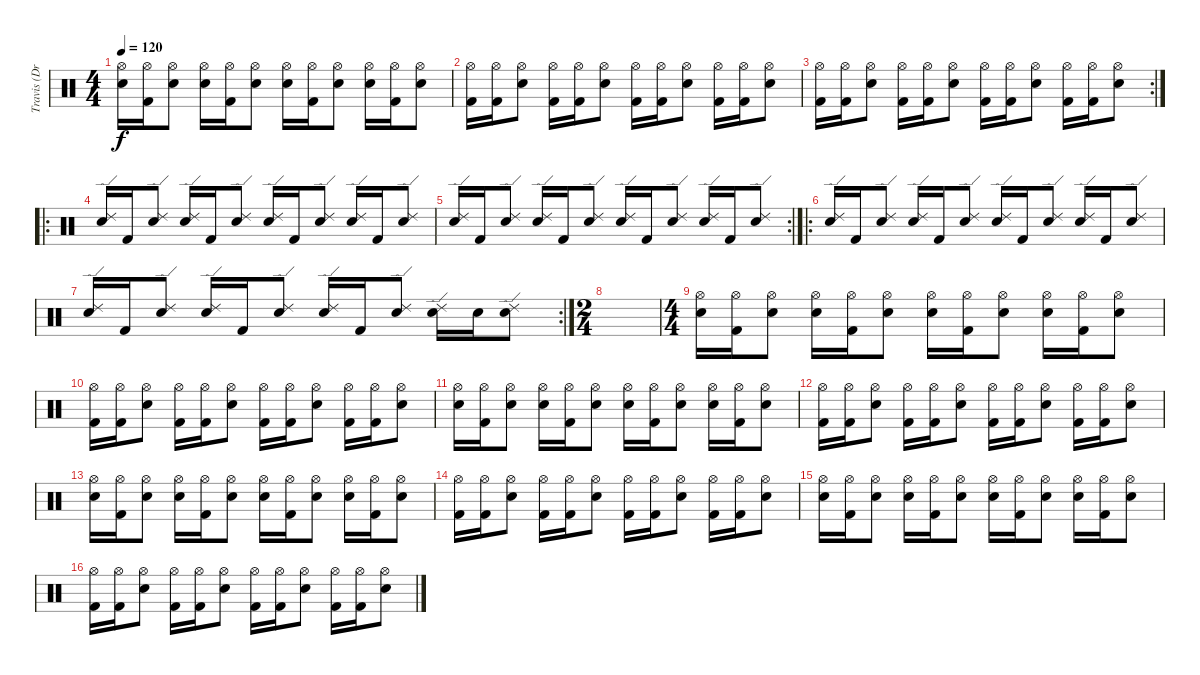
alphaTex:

\track ("Travis (Drum)" "Travis (Dr") {instrument percussion}
\staff {score}
\articulation defaults
\ts (4 4)
\tempo 120
\clef neutral
\ks c
("Hi-Hat (open)" "Electric Snare (hit)").16{dy f} ("Hi-Hat (open)" "Kick (hit) 2").16 ("Hi-Hat (open)" "Electric Snare (hit)").8 ("Hi-Hat (open)" "Electric Snare (hit)").16 ("Hi-Hat (open)" "Kick (hit) 2").16 ("Hi-Hat (open)" "Electric Snare (hit)").8 ("Hi-Hat (open)" "Electric Snare (hit)").16 ("Hi-Hat (open)" "Kick (hit) 2").16 ("Hi-Hat (open)" "Electric Snare (hit)").8 ("Hi-Hat (open)" "Electric Snare (hit)").16 ("Hi-Hat (open)" "Kick (hit) 2").16 ("Hi-Hat (open)" "Electric Snare (hit)").8 |
("Hi-Hat (open)" "Kick (hit) 2").16 ("Hi-Hat (open)" "Kick (hit) 2").16 ("Hi-Hat (open)" "Electric Snare (hit)").8 ("Hi-Hat (open)" "Kick (hit) 2").16 ("Hi-Hat (open)" "Kick (hit) 2").16 ("Hi-Hat (open)" "Electric Snare (hit)").8 ("Hi-Hat (open)" "Kick (hit) 2").16 ("Hi-Hat (open)" "Kick (hit) 2").16 ("Hi-Hat (open)" "Electric Snare (hit)").8 ("Hi-Hat (open)" "Kick (hit) 2").16 ("Hi-Hat (open)" "Kick (hit) 2").16 ("Hi-Hat (open)" "Electric Snare (hit)").8 |
\rc 2
("Hi-Hat (open)" "Kick (hit) 2").16 ("Hi-Hat (open)" "Kick (hit) 2").16 ("Hi-Hat (open)" "Electric Snare (hit)").8 ("Hi-Hat (open)" "Kick (hit) 2").16 ("Hi-Hat (open)" "Kick (hit) 2").16 ("Hi-Hat (open)" "Electric Snare (hit)").8 ("Hi-Hat (open)" "Kick (hit) 2").16 ("Hi-Hat (open)" "Kick (hit) 2").16 ("Hi-Hat (open)" "Electric Snare (hit)").8 ("Hi-Hat (open)" "Kick (hit) 2").16 ("Hi-Hat (open)" "Kick (hit) 2").16 ("Hi-Hat (open)" "Electric Snare (hit)").8 |
\ro
("Ride (edge) 2" "Electric Snare (hit)").16 "Kick (hit) 2".16 ("Ride (edge) 2" "Electric Snare (hit)").8 ("Ride (edge) 2" "Electric Snare (hit)").16 "Kick (hit) 2".16 ("Ride (edge) 2" "Electric Snare (hit)").8 ("Ride (edge) 2" "Electric Snare (hit)").16 "Kick (hit) 2".16 ("Ride (edge) 2" "Electric Snare (hit)").8 ("Ride (edge) 2" "Electric Snare (hit)").16 "Kick (hit) 2".16 ("Ride (edge) 2" "Electric Snare (hit)").8 |
\rc 2
("Ride (edge) 2" "Electric Snare (hit)").16 "Kick (hit) 2".16 ("Ride (edge) 2" "Electric Snare (hit)").8 ("Ride (edge) 2" "Electric Snare (hit)").16 "Kick (hit) 2".16 ("Ride (edge) 2" "Electric Snare (hit)").8 ("Ride (edge) 2" "Electric Snare (hit)").16 "Kick (hit) 2".16 ("Ride (edge) 2" "Electric Snare (hit)").8 ("Ride (edge) 2" "Electric Snare (hit)").16 "Kick (hit) 2".16 ("Ride (edge) 2" "Electric Snare (hit)").8 |
\ro
("Ride (edge) 2" "Electric Snare (hit)").16 "Kick (hit) 2".16 ("Ride (edge) 2" "Electric Snare (hit)").8 ("Ride (edge) 2" "Electric Snare (hit)").16 "Kick (hit) 2".16 ("Ride (edge) 2" "Electric Snare (hit)").8 ("Ride (edge) 2" "Electric Snare (hit)").16 "Kick (hit) 2".16 ("Ride (edge) 2" "Electric Snare (hit)").8 ("Ride (edge) 2" "Electric Snare (hit)").16 "Kick (hit) 2".16 ("Ride (edge) 2" "Electric Snare (hit)").8 |
\rc 2
("Ride (edge) 2" "Electric Snare (hit)").16 "Kick (hit) 2".16 ("Ride (edge) 2" "Electric Snare (hit)").8 ("Ride (edge) 2" "Electric Snare (hit)").16 "Kick (hit) 2".16 ("Ride (edge) 2" "Electric Snare (hit)").8 ("Ride (edge) 2" "Electric Snare (hit)").16 "Kick (hit) 2".16 ("Ride (edge) 2" "Electric Snare (hit)").8 ("Ride (edge) 2" "Electric Snare (hit)").16 "Electric Snare (hit)".16 ("Ride (edge) 2" "Electric Snare (hit)").8 |
\ts (2 4)
|
\ts (4 4)
("Hi-Hat (open)" "Electric Snare (hit)").16 ("Hi-Hat (open)" "Kick (hit) 2").16 ("Hi-Hat (open)" "Electric Snare (hit)").8 ("Hi-Hat (open)" "Electric Snare (hit)").16 ("Hi-Hat (open)" "Kick (hit) 2").16 ("Hi-Hat (open)" "Electric Snare (hit)").8 ("Hi-Hat (open)" "Electric Snare (hit)").16 ("Hi-Hat (open)" "Kick (hit) 2").16 ("Hi-Hat (open)" "Electric Snare (hit)").8 ("Hi-Hat (open)" "Electric Snare (hit)").16 ("Hi-Hat (open)" "Kick (hit) 2").16 ("Hi-Hat (open)" "Electric Snare (hit)").8 |
("Hi-Hat (open)" "Kick (hit) 2").16 ("Hi-Hat (open)" "Kick (hit) 2").16 ("Hi-Hat (open)" "Electric Snare (hit)").8 ("Hi-Hat (open)" "Kick (hit) 2").16 ("Hi-Hat (open)" "Kick (hit) 2").16 ("Hi-Hat (open)" "Electric Snare (hit)").8 ("Hi-Hat (open)" "Kick (hit) 2").16 ("Hi-Hat (open)" "Kick (hit) 2").16 ("Hi-Hat (open)" "Electric Snare (hit)").8 ("Hi-Hat (open)" "Kick (hit) 2").16 ("Hi-Hat (open)" "Kick (hit) 2").16 ("Hi-Hat (open)" "Electric Snare (hit)").8 |
("Hi-Hat (open)" "Electric Snare (hit)").16 ("Hi-Hat (open)" "Kick (hit) 2").16 ("Hi-Hat (open)" "Electric Snare (hit)").8 ("Hi-Hat (open)" "Electric Snare (hit)").16 ("Hi-Hat (open)" "Kick (hit) 2").16 ("Hi-Hat (open)" "Electric Snare (hit)").8 ("Hi-Hat (open)" "Electric Snare (hit)").16 ("Hi-Hat (open)" "Kick (hit) 2").16 ("Hi-Hat (open)" "Electric Snare (hit)").8 ("Hi-Hat (open)" "Electric Snare (hit)").16 ("Hi-Hat (open)" "Kick (hit) 2").16 ("Hi-Hat (open)" "Electric Snare (hit)").8 |
("Hi-Hat (open)" "Kick (hit) 2").16 ("Hi-Hat (open)" "Kick (hit) 2").16 ("Hi-Hat (open)" "Electric Snare (hit)").8 ("Hi-Hat (open)" "Kick (hit) 2").16 ("Hi-Hat (open)" "Kick (hit) 2").16 ("Hi-Hat (open)" "Electric Snare (hit)").8 ("Hi-Hat (open)" "Kick (hit) 2").16 ("Hi-Hat (open)" "Kick (hit) 2").16 ("Hi-Hat (open)" "Electric Snare (hit)").8 ("Hi-Hat (open)" "Kick (hit) 2").16 ("Hi-Hat (open)" "Kick (hit) 2").16 ("Hi-Hat (open)" "Electric Snare (hit)").8 |
("Hi-Hat (open)" "Electric Snare (hit)").16 ("Hi-Hat (open)" "Kick (hit) 2").16 ("Hi-Hat (open)" "Electric Snare (hit)").8 ("Hi-Hat (open)" "Electric Snare (hit)").16 ("Hi-Hat (open)" "Kick (hit) 2").16 ("Hi-Hat (open)" "Electric Snare (hit)").8 ("Hi-Hat (open)" "Electric Snare (hit)").16 ("Hi-Hat (open)" "Kick (hit) 2").16 ("Hi-Hat (open)" "Electric Snare (hit)").8 ("Hi-Hat (open)" "Electric Snare (hit)").16 ("Hi-Hat (open)" "Kick (hit) 2").16 ("Hi-Hat (open)" "Electric Snare (hit)").8 |
("Hi-Hat (open)" "Kick (hit) 2").16 ("Hi-Hat (open)" "Kick (hit) 2").16 ("Hi-Hat (open)" "Electric Snare (hit)").8 ("Hi-Hat (open)" "Kick (hit) 2").16 ("Hi-Hat (open)" "Kick (hit) 2").16 ("Hi-Hat (open)" "Electric Snare (hit)").8 ("Hi-Hat (open)" "Kick (hit) 2").16 ("Hi-Hat (open)" "Kick (hit) 2").16 ("Hi-Hat (open)" "Electric Snare (hit)").8 ("Hi-Hat (open)" "Kick (hit) 2").16 ("Hi-Hat (open)" "Kick (hit) 2").16 ("Hi-Hat (open)" "Electric Snare (hit)").8 |
("Hi-Hat (open)" "Electric Snare (hit)").16 ("Hi-Hat (open)" "Kick (hit) 2").16 ("Hi-Hat (open)" "Electric Snare (hit)").8 ("Hi-Hat (open)" "Electric Snare (hit)").16 ("Hi-Hat (open)" "Kick (hit) 2").16 ("Hi-Hat (open)" "Electric Snare (hit)").8 ("Hi-Hat (open)" "Electric Snare (hit)").16 ("Hi-Hat (open)" "Kick (hit) 2").16 ("Hi-Hat (open)" "Electric Snare (hit)").8 ("Hi-Hat (open)" "Electric Snare (hit)").16 ("Hi-Hat (open)" "Kick (hit) 2").16 ("Hi-Hat (open)" "Electric Snare (hit)").8 |
("Hi-Hat (open)" "Kick (hit) 2").16 ("Hi-Hat (open)" "Kick (hit) 2").16 ("Hi-Hat (open)" "Electric Snare (hit)").8 ("Hi-Hat (open)" "Kick (hit) 2").16 ("Hi-Hat (open)" "Kick (hit) 2").16 ("Hi-Hat (open)" "Electric Snare (hit)").8 ("Hi-Hat (open)" "Kick (hit) 2").16 ("Hi-Hat (open)" "Kick (hit) 2").16 ("Hi-Hat (open)" "Electric Snare (hit)").8 ("Hi-Hat (open)" "Kick (hit) 2").16 ("Hi-Hat (open)" "Kick (hit) 2").16 ("Hi-Hat (open)" "Electric Snare (hit)").8
